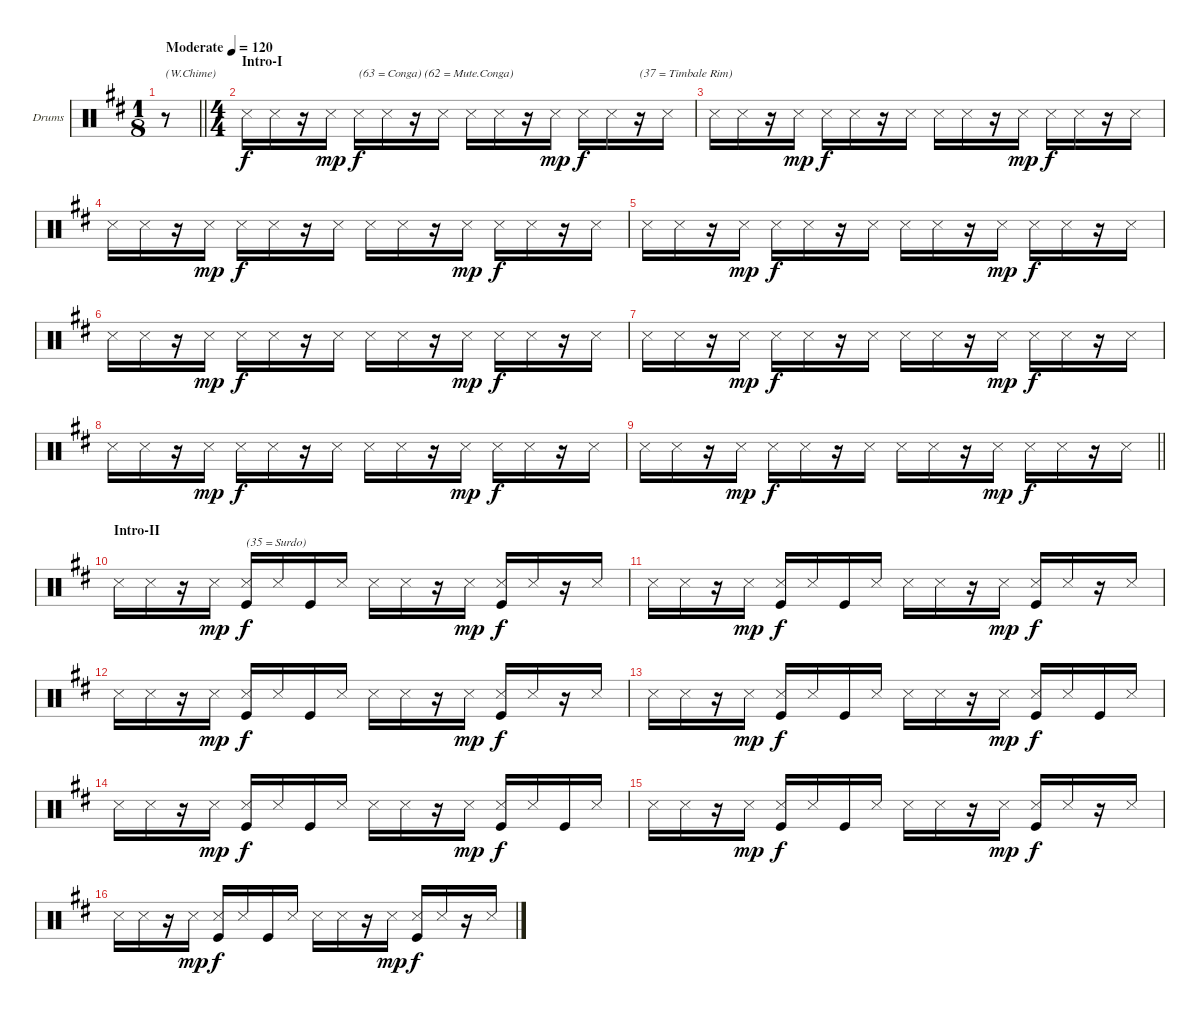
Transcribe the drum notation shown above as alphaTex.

\bracketExtendMode groupsimilarinstruments
\firstSystemTrackNameOrientation horizontal
\otherSystemsTrackNameOrientation horizontal
\track ("Drumkit" "Drums") {instrument percussion}
\staff {score}
\articulation defaults
\ts (1 8)
\beaming (8 1)
\tempo (120 "Moderate")
\clef neutral
\barLineRight lightlight
\ks d
r.8{txt "(W.Chime)" dy f} |
\ts (4 4)
\beaming (8 2 2 2 2)
\section ("" "Intro-I")
"Snare (side stick) 3".16 "Snare (side stick) 3".16 r.16 "Snare (side stick) 3".16{dy mp} "Snare (side stick) 3".16{txt "(63 = Conga) (62 = Mute.Conga)" dy f} "Snare (side stick) 3".16 r.16 "Snare (side stick) 3".16 "Snare (side stick) 3".16 "Snare (side stick) 3".16 r.16 "Snare (side stick) 3".16{dy mp} "Snare (side stick) 3".16{dy f} "Snare (side stick) 3".16 r.16{txt "(37 = Timbale Rim)"} "Snare (side stick) 3".16 |
"Snare (side stick) 3".16 "Snare (side stick) 3".16 r.16 "Snare (side stick) 3".16{dy mp} "Snare (side stick) 3".16{dy f} "Snare (side stick) 3".16 r.16 "Snare (side stick) 3".16 "Snare (side stick) 3".16 "Snare (side stick) 3".16 r.16 "Snare (side stick) 3".16{dy mp} "Snare (side stick) 3".16{dy f} "Snare (side stick) 3".16 r.16 "Snare (side stick) 3".16 |
"Snare (side stick) 3".16 "Snare (side stick) 3".16 r.16 "Snare (side stick) 3".16{dy mp} "Snare (side stick) 3".16{dy f} "Snare (side stick) 3".16 r.16 "Snare (side stick) 3".16 "Snare (side stick) 3".16 "Snare (side stick) 3".16 r.16 "Snare (side stick) 3".16{dy mp} "Snare (side stick) 3".16{dy f} "Snare (side stick) 3".16 r.16 "Snare (side stick) 3".16 |
"Snare (side stick) 3".16 "Snare (side stick) 3".16 r.16 "Snare (side stick) 3".16{dy mp} "Snare (side stick) 3".16{dy f} "Snare (side stick) 3".16 r.16 "Snare (side stick) 3".16 "Snare (side stick) 3".16 "Snare (side stick) 3".16 r.16 "Snare (side stick) 3".16{dy mp} "Snare (side stick) 3".16{dy f} "Snare (side stick) 3".16 r.16 "Snare (side stick) 3".16 |
"Snare (side stick) 3".16 "Snare (side stick) 3".16 r.16 "Snare (side stick) 3".16{dy mp} "Snare (side stick) 3".16{dy f} "Snare (side stick) 3".16 r.16 "Snare (side stick) 3".16 "Snare (side stick) 3".16 "Snare (side stick) 3".16 r.16 "Snare (side stick) 3".16{dy mp} "Snare (side stick) 3".16{dy f} "Snare (side stick) 3".16 r.16 "Snare (side stick) 3".16 |
"Snare (side stick) 3".16 "Snare (side stick) 3".16 r.16 "Snare (side stick) 3".16{dy mp} "Snare (side stick) 3".16{dy f} "Snare (side stick) 3".16 r.16 "Snare (side stick) 3".16 "Snare (side stick) 3".16 "Snare (side stick) 3".16 r.16 "Snare (side stick) 3".16{dy mp} "Snare (side stick) 3".16{dy f} "Snare (side stick) 3".16 r.16 "Snare (side stick) 3".16 |
"Snare (side stick) 3".16 "Snare (side stick) 3".16 r.16 "Snare (side stick) 3".16{dy mp} "Snare (side stick) 3".16{dy f} "Snare (side stick) 3".16 r.16 "Snare (side stick) 3".16 "Snare (side stick) 3".16 "Snare (side stick) 3".16 r.16 "Snare (side stick) 3".16{dy mp} "Snare (side stick) 3".16{dy f} "Snare (side stick) 3".16 r.16 "Snare (side stick) 3".16 |
\barLineRight lightlight "Snare (side stick) 3".16 "Snare (side stick) 3".16
r.16 "Snare (side stick) 3".16{dy mp} "Snare (side stick) 3".16{dy f} "Snare (side stick) 3".16 r.16 "Snare (side stick) 3".16 "Snare (side stick) 3".16 "Snare (side stick) 3".16 r.16 "Snare (side stick) 3".16{dy mp} "Snare (side stick) 3".16{dy f} "Snare (side stick) 3".16 r.16 "Snare (side stick) 3".16 |
\section ("" "Intro-II")
"Snare (side stick) 3".16 "Snare (side stick) 3".16 r.16 "Snare (side stick) 3".16{dy mp} ("Snare (side stick) 3" "Kick (hit)").16{txt "(35 = Surdo)" dy f} "Snare (side stick) 3".16 "Kick (hit)".16 "Snare (side stick) 3".16 "Snare (side stick) 3".16 "Snare (side stick) 3".16 r.16 "Snare (side stick) 3".16{dy mp} ("Snare (side stick) 3" "Kick (hit)").16{dy f} "Snare (side stick) 3".16 r.16 "Snare (side stick) 3".16 |
"Snare (side stick) 3".16 "Snare (side stick) 3".16 r.16 "Snare (side stick) 3".16{dy mp} ("Snare (side stick) 3" "Kick (hit)").16{dy f} "Snare (side stick) 3".16 "Kick (hit)".16 "Snare (side stick) 3".16 "Snare (side stick) 3".16 "Snare (side stick) 3".16 r.16 "Snare (side stick) 3".16{dy mp} ("Snare (side stick) 3" "Kick (hit)").16{dy f} "Snare (side stick) 3".16 r.16 "Snare (side stick) 3".16 |
"Snare (side stick) 3".16 "Snare (side stick) 3".16 r.16 "Snare (side stick) 3".16{dy mp} ("Snare (side stick) 3" "Kick (hit)").16{dy f} "Snare (side stick) 3".16 "Kick (hit)".16 "Snare (side stick) 3".16 "Snare (side stick) 3".16 "Snare (side stick) 3".16 r.16 "Snare (side stick) 3".16{dy mp} ("Snare (side stick) 3" "Kick (hit)").16{dy f} "Snare (side stick) 3".16 r.16 "Snare (side stick) 3".16 |
"Snare (side stick) 3".16 "Snare (side stick) 3".16 r.16 "Snare (side stick) 3".16{dy mp} ("Snare (side stick) 3" "Kick (hit)").16{dy f} "Snare (side stick) 3".16 "Kick (hit)".16 "Snare (side stick) 3".16 "Snare (side stick) 3".16 "Snare (side stick) 3".16 r.16 "Snare (side stick) 3".16{dy mp} ("Snare (side stick) 3" "Kick (hit)").16{dy f} "Snare (side stick) 3".16 "Kick (hit)".16 "Snare (side stick) 3".16 |
"Snare (side stick) 3".16 "Snare (side stick) 3".16 r.16 "Snare (side stick) 3".16{dy mp} ("Snare (side stick) 3" "Kick (hit)").16{dy f} "Snare (side stick) 3".16 "Kick (hit)".16 "Snare (side stick) 3".16 "Snare (side stick) 3".16 "Snare (side stick) 3".16 r.16 "Snare (side stick) 3".16{dy mp} ("Snare (side stick) 3" "Kick (hit)").16{dy f} "Snare (side stick) 3".16 "Kick (hit)".16 "Snare (side stick) 3".16 |
"Snare (side stick) 3".16 "Snare (side stick) 3".16 r.16 "Snare (side stick) 3".16{dy mp} ("Snare (side stick) 3" "Kick (hit)").16{dy f} "Snare (side stick) 3".16 "Kick (hit)".16 "Snare (side stick) 3".16 "Snare (side stick) 3".16 "Snare (side stick) 3".16 r.16 "Snare (side stick) 3".16{dy mp} ("Snare (side stick) 3" "Kick (hit)").16{dy f} "Snare (side stick) 3".16 r.16 "Snare (side stick) 3".16 |
"Snare (side stick) 3".16 "Snare (side stick) 3".16 r.16 "Snare (side stick) 3".16{dy mp} ("Snare (side stick) 3" "Kick (hit)").16{dy f} "Snare (side stick) 3".16 "Kick (hit)".16 "Snare (side stick) 3".16 "Snare (side stick) 3".16 "Snare (side stick) 3".16 r.16 "Snare (side stick) 3".16{dy mp} ("Snare (side stick) 3" "Kick (hit)").16{dy f} "Snare (side stick) 3".16 r.16 "Snare (side stick) 3".16
